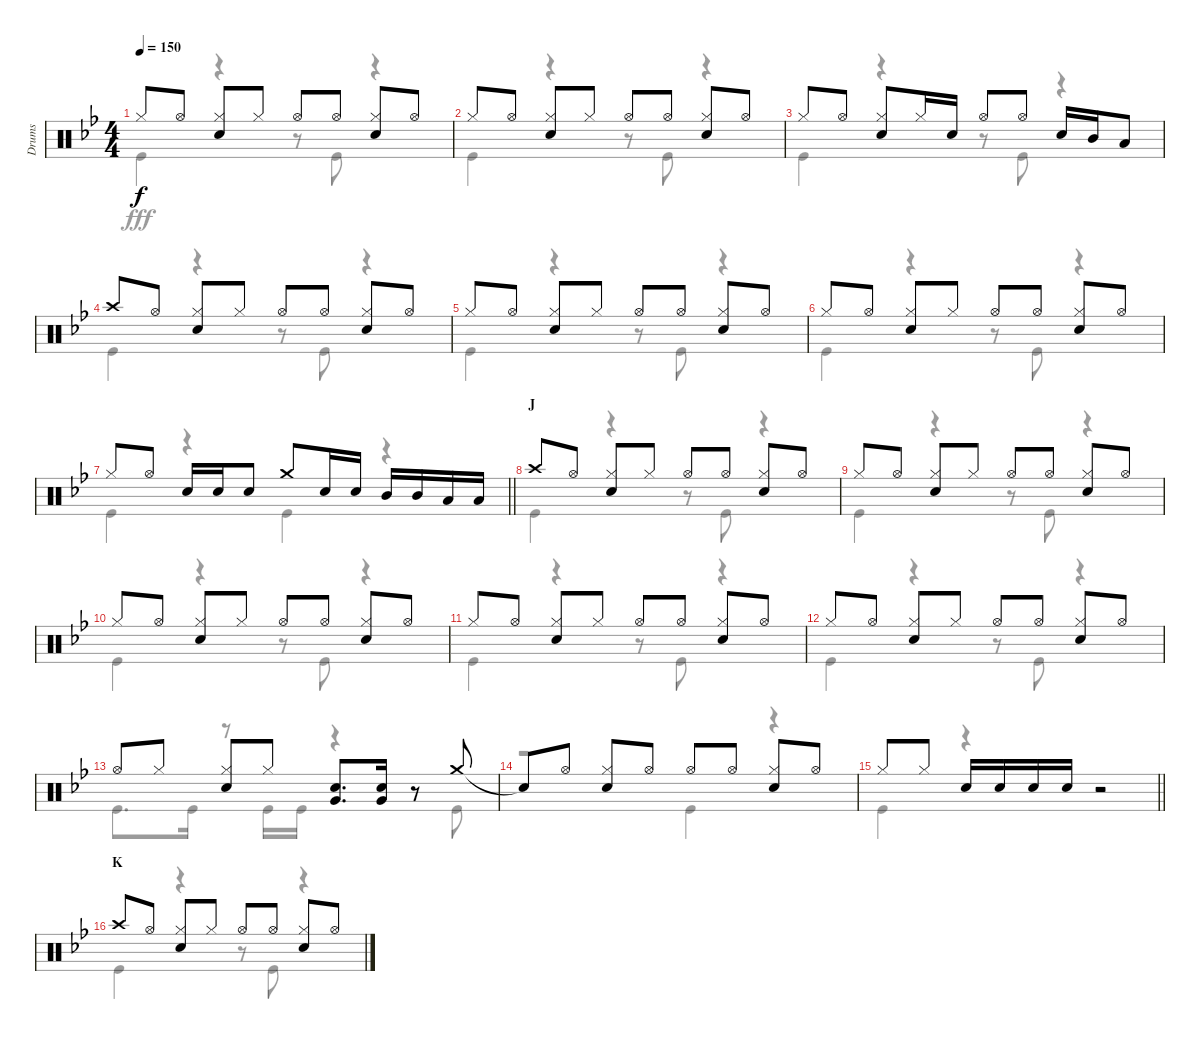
\track ("Drums" "Drums") {instrument percussion}
\staff {score}
\articulation defaults
\voice
\ts (4 4)
\tempo 150
\clef neutral
\ks bb "Hi-Hat (closed)".8{dy f} "Hi-Hat (open)".8
("Hi-Hat (closed)" "Snare (hit) 2").8 "Hi-Hat (closed)".8 "Hi-Hat (open)".8 "Hi-Hat (open)".8 ("Hi-Hat (closed)" "Snare (hit) 2").8 "Hi-Hat (open)".8 |
"Hi-Hat (closed)".8 "Hi-Hat (open)".8 ("Hi-Hat (closed)" "Snare (hit) 2").8 "Hi-Hat (closed)".8 "Hi-Hat (open)".8 "Hi-Hat (open)".8 ("Hi-Hat (closed)" "Snare (hit) 2").8 "Hi-Hat (open)".8 |
"Hi-Hat (closed)".8 "Hi-Hat (open)".8 ("Hi-Hat (closed)" "Snare (hit) 2").8 "Hi-Hat (closed)".16 "Snare (hit) 2".16 "Hi-Hat (open)".8 "Hi-Hat (open)".8 "Snare (hit) 2".16 "Mid Tom (hit)".16 "Low Tom (hit)".8 |
"Crash high (hit)".8 "Hi-Hat (open)".8 ("Hi-Hat (closed)" "Snare (hit) 2").8 "Hi-Hat (closed)".8 "Hi-Hat (open)".8 "Hi-Hat (open)".8 ("Hi-Hat (closed)" "Snare (hit) 2").8 "Hi-Hat (open)".8 |
"Hi-Hat (closed)".8 "Hi-Hat (open)".8 ("Hi-Hat (closed)" "Snare (hit) 2").8 "Hi-Hat (closed)".8 "Hi-Hat (open)".8 "Hi-Hat (open)".8 ("Hi-Hat (closed)" "Snare (hit) 2").8 "Hi-Hat (open)".8 |
"Hi-Hat (closed)".8 "Hi-Hat (open)".8 ("Hi-Hat (closed)" "Snare (hit) 2").8 "Hi-Hat (closed)".8 "Hi-Hat (open)".8 "Hi-Hat (open)".8 ("Hi-Hat (closed)" "Snare (hit) 2").8 "Hi-Hat (open)".8 |
\barLineRight lightlight "Hi-Hat (closed)".8 "Hi-Hat (open)".8 "Snare (hit) 2".16 "Snare (hit) 2".16 "Snare (hit) 2".8 "Crash medium (hit)".8 "Snare (hit) 2".16 "Snare (hit) 2".16 "Mid Tom (hit)".16 "Mid Tom (hit)".16 "Low Tom (hit)".16 "Low Tom (hit)".16
|
\section ("" "J")
"Crash high (hit)".8 "Hi-Hat (open)".8 ("Hi-Hat (closed)" "Snare (hit) 2").8 "Hi-Hat (closed)".8 "Hi-Hat (open)".8 "Hi-Hat (open)".8 ("Hi-Hat (closed)" "Snare (hit) 2").8 "Hi-Hat (open)".8 |
"Hi-Hat (closed)".8 "Hi-Hat (open)".8 ("Hi-Hat (closed)" "Snare (hit) 2").8 "Hi-Hat (closed)".8 "Hi-Hat (open)".8 "Hi-Hat (open)".8 ("Hi-Hat (closed)" "Snare (hit) 2").8 "Hi-Hat (open)".8 |
"Hi-Hat (closed)".8 "Hi-Hat (open)".8 ("Hi-Hat (closed)" "Snare (hit) 2").8 "Hi-Hat (closed)".8 "Hi-Hat (open)".8 "Hi-Hat (open)".8 ("Hi-Hat (closed)" "Snare (hit) 2").8 "Hi-Hat (open)".8 |
"Hi-Hat (closed)".8 "Hi-Hat (open)".8 ("Hi-Hat (closed)" "Snare (hit) 2").8 "Hi-Hat (closed)".8 "Hi-Hat (open)".8 "Hi-Hat (open)".8 ("Hi-Hat (closed)" "Snare (hit) 2").8 "Hi-Hat (open)".8 |
"Hi-Hat (closed)".8 "Hi-Hat (open)".8 ("Hi-Hat (closed)" "Snare (hit) 2").8 "Hi-Hat (closed)".8 "Hi-Hat (open)".8 "Hi-Hat (open)".8 ("Hi-Hat (closed)" "Snare (hit) 2").8 "Hi-Hat (open)".8 |
"Hi-Hat (open)".8 "Hi-Hat (closed)".8 ("Hi-Hat (closed)" "Snare (hit) 2").8 "Hi-Hat (closed)".8 ("Snare (hit) 2" "Very Low Tom (hit)").8{d} ("Snare (hit) 2" "Very Low Tom (hit)").16 r.8 "Crash medium (hit)".8 |
"Snare (hit)"{t}.8 "Hi-Hat (open)".8 ("Hi-Hat (closed)" "Snare (hit) 2").8 "Hi-Hat (open)".8 "Hi-Hat (open)".8 "Hi-Hat (open)".8 ("Hi-Hat (closed)" "Snare (hit) 2").8 "Hi-Hat (open)".8 |
\barLineRight lightlight "Hi-Hat (closed)".8 "Hi-Hat (closed)".8 "Snare (hit) 2".16 "Snare (hit) 2".16 "Snare (hit) 2".16 "Snare (hit) 2".16
r.2 |
\section ("" "K")
"Crash high (hit)".8 "Hi-Hat (open)".8 ("Hi-Hat (closed)" "Snare (hit) 2").8 "Hi-Hat (closed)".8 "Hi-Hat (open)".8 "Hi-Hat (open)".8 ("Hi-Hat (closed)" "Snare (hit) 2").8 "Hi-Hat (open)".8
\voice
\clef neutral
\ottava regular
\simile none
\ks bb "Kick (hit)".4{dy fff}
r.4 r.8 "Kick (hit)".8 r.4 |
"Kick (hit)".4 r.4 r.8 "Kick (hit)".8 r.4 |
"Kick (hit)".4 r.4 r.8 "Kick (hit)".8 r.4 |
"Kick (hit)".4 r.4 r.8 "Kick (hit)".8 r.4 |
"Kick (hit)".4 r.4 r.8 "Kick (hit)".8 r.4 |
"Kick (hit)".4 r.4 r.8 "Kick (hit)".8 r.4 |
\barLineRight lightlight "Kick (hit)".4
r.4 "Kick (hit)".4 r.4 |
"Kick (hit)".4 r.4 r.8 "Kick (hit)".8 r.4 |
"Kick (hit)".4 r.4 r.8 "Kick (hit)".8 r.4 |
"Kick (hit)".4 r.4 r.8 "Kick (hit)".8 r.4 |
"Kick (hit)".4 r.4 r.8 "Kick (hit)".8 r.4 |
"Kick (hit)".4 r.4 r.8 "Kick (hit)".8 r.4 |
"Kick (hit)".8{d} "Kick (hit)".16 r.8 "Kick (hit)".16 "Kick (hit)".16 r.4 r.8 "Kick (hit)".8 |
r.2 "Kick (hit)".4 r.4 |
\barLineRight lightlight "Kick (hit)".4
r.4 r.2 |
"Kick (hit)".4 r.4 r.8 "Kick (hit)".8 r.4
